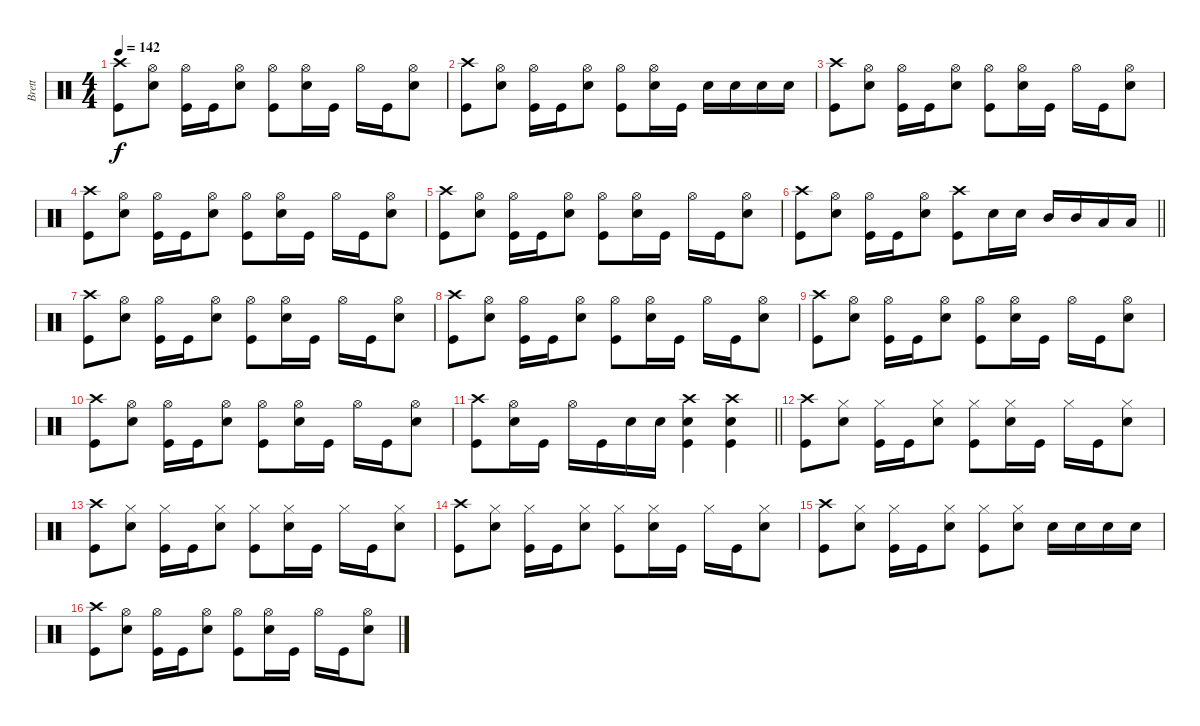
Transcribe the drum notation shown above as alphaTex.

\track ("Brett" "Brett") {instrument percussion}
\staff {score}
\articulation defaults
\ts (4 4)
\tempo 142
\clef neutral
\ks c
("Crash high (hit)" "Kick (hit)").8{dy f} ("Hi-Hat (open)" "Electric Snare (hit)").8 ("Hi-Hat (open)" "Kick (hit)").16 "Kick (hit)".16 ("Hi-Hat (open)" "Electric Snare (hit)").8 ("Hi-Hat (open)" "Kick (hit)").8 ("Hi-Hat (open)" "Electric Snare (hit)").16 "Kick (hit)".16 "Hi-Hat (open)".16 "Kick (hit)".16 ("Hi-Hat (open)" "Electric Snare (hit)").8 |
("Crash high (hit)" "Kick (hit)").8 ("Hi-Hat (open)" "Electric Snare (hit)").8 ("Hi-Hat (open)" "Kick (hit)").16 "Kick (hit)".16 ("Hi-Hat (open)" "Electric Snare (hit)").8 ("Hi-Hat (open)" "Kick (hit)").8 ("Hi-Hat (open)" "Electric Snare (hit)").16 "Kick (hit)".16 "Electric Snare (hit)".16 "Electric Snare (hit)".16 "Electric Snare (hit)".16 "Electric Snare (hit)".16 |
("Crash high (hit)" "Kick (hit)").8 ("Hi-Hat (open)" "Electric Snare (hit)").8 ("Hi-Hat (open)" "Kick (hit)").16 "Kick (hit)".16 ("Hi-Hat (open)" "Electric Snare (hit)").8 ("Hi-Hat (open)" "Kick (hit)").8 ("Hi-Hat (open)" "Electric Snare (hit)").16 "Kick (hit)".16 "Hi-Hat (open)".16 "Kick (hit)".16 ("Hi-Hat (open)" "Electric Snare (hit)").8 |
("Crash high (hit)" "Kick (hit)").8 ("Hi-Hat (open)" "Electric Snare (hit)").8 ("Hi-Hat (open)" "Kick (hit)").16 "Kick (hit)".16 ("Hi-Hat (open)" "Electric Snare (hit)").8 ("Hi-Hat (open)" "Kick (hit)").8 ("Hi-Hat (open)" "Electric Snare (hit)").16 "Kick (hit)".16 "Hi-Hat (open)".16 "Kick (hit)".16 ("Hi-Hat (open)" "Electric Snare (hit)").8 |
("Crash high (hit)" "Kick (hit)").8 ("Hi-Hat (open)" "Electric Snare (hit)").8 ("Hi-Hat (open)" "Kick (hit)").16 "Kick (hit)".16 ("Hi-Hat (open)" "Electric Snare (hit)").8 ("Hi-Hat (open)" "Kick (hit)").8 ("Hi-Hat (open)" "Electric Snare (hit)").16 "Kick (hit)".16 "Hi-Hat (open)".16 "Kick (hit)".16 ("Hi-Hat (open)" "Electric Snare (hit)").8 |
\barLineRight lightlight
("Crash high (hit)" "Kick (hit)").8 ("Hi-Hat (open)" "Electric Snare (hit)").8 ("Hi-Hat (open)" "Kick (hit)").16 "Kick (hit)".16 ("Hi-Hat (open)" "Electric Snare (hit)").8 ("Crash high (hit)" "Kick (hit)").8 "Electric Snare (hit)".16 "Electric Snare (hit)".16 "Mid Tom (hit)".16 "Mid Tom (hit)".16 "Low Tom (hit)".16 "Low Tom (hit)".16 |
("Crash high (hit)" "Kick (hit)").8 ("Hi-Hat (open)" "Electric Snare (hit)").8 ("Hi-Hat (open)" "Kick (hit)").16 "Kick (hit)".16 ("Hi-Hat (open)" "Electric Snare (hit)").8 ("Hi-Hat (open)" "Kick (hit)").8 ("Hi-Hat (open)" "Electric Snare (hit)").16 "Kick (hit)".16 "Hi-Hat (open)".16 "Kick (hit)".16 ("Hi-Hat (open)" "Electric Snare (hit)").8 |
("Crash high (hit)" "Kick (hit)").8 ("Hi-Hat (open)" "Electric Snare (hit)").8 ("Hi-Hat (open)" "Kick (hit)").16 "Kick (hit)".16 ("Hi-Hat (open)" "Electric Snare (hit)").8 ("Hi-Hat (open)" "Kick (hit)").8 ("Hi-Hat (open)" "Electric Snare (hit)").16 "Kick (hit)".16 "Hi-Hat (open)".16 "Kick (hit)".16 ("Hi-Hat (open)" "Electric Snare (hit)").8 |
("Crash high (hit)" "Kick (hit)").8 ("Hi-Hat (open)" "Electric Snare (hit)").8 ("Hi-Hat (open)" "Kick (hit)").16 "Kick (hit)".16 ("Hi-Hat (open)" "Electric Snare (hit)").8 ("Hi-Hat (open)" "Kick (hit)").8 ("Hi-Hat (open)" "Electric Snare (hit)").16 "Kick (hit)".16 "Hi-Hat (open)".16 "Kick (hit)".16 ("Hi-Hat (open)" "Electric Snare (hit)").8 |
("Crash high (hit)" "Kick (hit)").8 ("Hi-Hat (open)" "Electric Snare (hit)").8 ("Hi-Hat (open)" "Kick (hit)").16 "Kick (hit)".16 ("Hi-Hat (open)" "Electric Snare (hit)").8 ("Hi-Hat (open)" "Kick (hit)").8 ("Hi-Hat (open)" "Electric Snare (hit)").16 "Kick (hit)".16 "Hi-Hat (open)".16 "Kick (hit)".16 ("Hi-Hat (open)" "Electric Snare (hit)").8 |
\barLineRight lightlight
("Crash high (hit)" "Kick (hit)").8 ("Hi-Hat (open)" "Electric Snare (hit)").16 "Kick (hit)".16 "Hi-Hat (open)".16 "Kick (hit)".16 "Electric Snare (hit)".16 "Electric Snare (hit)".16 ("Crash high (hit)" "Electric Snare (hit)" "Kick (hit)").4 ("Crash high (hit)" "Electric Snare (hit)" "Kick (hit)").4 |
("Crash high (hit)" "Kick (hit)").8 ("Hi-Hat (closed)" "Electric Snare (hit)").8 ("Hi-Hat (closed)" "Kick (hit)").16 "Kick (hit)".16 ("Hi-Hat (closed)" "Electric Snare (hit)").8 ("Hi-Hat (closed)" "Kick (hit)").8 ("Hi-Hat (closed)" "Electric Snare (hit)").16 "Kick (hit)".16 "Hi-Hat (closed)".16 "Kick (hit)".16 ("Hi-Hat (closed)" "Electric Snare (hit)").8 |
("Crash high (hit)" "Kick (hit)").8 ("Hi-Hat (closed)" "Electric Snare (hit)").8 ("Hi-Hat (closed)" "Kick (hit)").16 "Kick (hit)".16 ("Hi-Hat (closed)" "Electric Snare (hit)").8 ("Hi-Hat (closed)" "Kick (hit)").8 ("Hi-Hat (closed)" "Electric Snare (hit)").16 "Kick (hit)".16 "Hi-Hat (closed)".16 "Kick (hit)".16 ("Hi-Hat (closed)" "Electric Snare (hit)").8 |
("Crash high (hit)" "Kick (hit)").8 ("Hi-Hat (closed)" "Electric Snare (hit)").8 ("Hi-Hat (closed)" "Kick (hit)").16 "Kick (hit)".16 ("Hi-Hat (closed)" "Electric Snare (hit)").8 ("Hi-Hat (closed)" "Kick (hit)").8 ("Hi-Hat (closed)" "Electric Snare (hit)").16 "Kick (hit)".16 "Hi-Hat (closed)".16 "Kick (hit)".16 ("Hi-Hat (closed)" "Electric Snare (hit)").8 |
("Crash high (hit)" "Kick (hit)").8 ("Hi-Hat (closed)" "Electric Snare (hit)").8 ("Hi-Hat (closed)" "Kick (hit)").16 "Kick (hit)".16 ("Hi-Hat (closed)" "Electric Snare (hit)").8 ("Hi-Hat (closed)" "Kick (hit)").8 ("Hi-Hat (closed)" "Electric Snare (hit)").8 "Electric Snare (hit)".16 "Electric Snare (hit)".16 "Electric Snare (hit)".16 "Electric Snare (hit)".16 |
("Crash high (hit)" "Kick (hit)").8 ("Hi-Hat (open)" "Electric Snare (hit)").8 ("Hi-Hat (open)" "Kick (hit)").16 "Kick (hit)".16 ("Hi-Hat (open)" "Electric Snare (hit)").8 ("Hi-Hat (open)" "Kick (hit)").8 ("Hi-Hat (open)" "Electric Snare (hit)").16 "Kick (hit)".16 "Hi-Hat (open)".16 "Kick (hit)".16 ("Hi-Hat (open)" "Electric Snare (hit)").8
